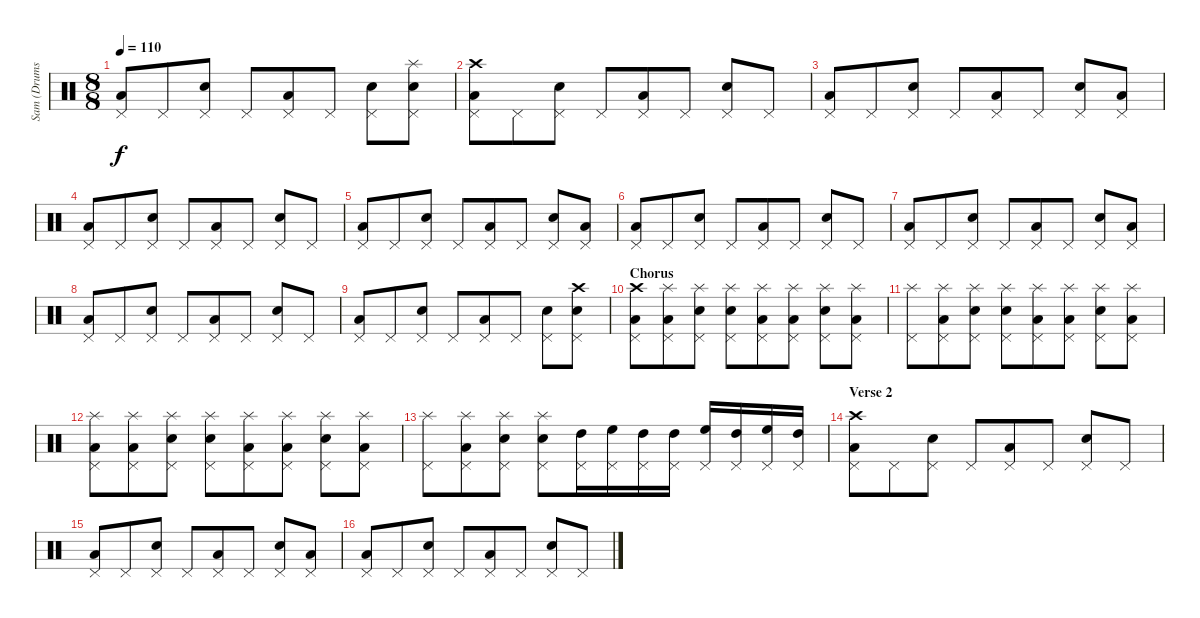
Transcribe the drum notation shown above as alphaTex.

\track ("Sam (Drums)" "Sam (Drums") {instrument percussion}
\staff {score}
\articulation defaults
\ts (8 8)
\tempo 110
\clef neutral
\ks c
("Low Tom (hit)" "Pedal Hi-Hat (hit)").8{dy f} "Pedal Hi-Hat (hit)".8 ("Snare (hit) 2" "Pedal Hi-Hat (hit)").8 "Pedal Hi-Hat (hit)".8 ("Low Tom (hit)" "Pedal Hi-Hat (hit)").8 "Pedal Hi-Hat (hit)".8 ("Snare (hit) 2" "Pedal Hi-Hat (hit)").8 ("Splash (hit)" "Snare (hit) 2" "Pedal Hi-Hat (hit)").8 |
("Crash high (hit)" "Low Tom (hit)" "Pedal Hi-Hat (hit)").8 "Pedal Hi-Hat (hit)".8 ("Snare (hit) 2" "Pedal Hi-Hat (hit)").8 "Pedal Hi-Hat (hit)".8 ("Low Tom (hit)" "Pedal Hi-Hat (hit)").8 "Pedal Hi-Hat (hit)".8 ("Snare (hit) 2" "Pedal Hi-Hat (hit)").8 "Pedal Hi-Hat (hit)".8 |
("Low Tom (hit)" "Pedal Hi-Hat (hit)").8 "Pedal Hi-Hat (hit)".8 ("Snare (hit) 2" "Pedal Hi-Hat (hit)").8 "Pedal Hi-Hat (hit)".8 ("Low Tom (hit)" "Pedal Hi-Hat (hit)").8 "Pedal Hi-Hat (hit)".8 ("Snare (hit) 2" "Pedal Hi-Hat (hit)").8 ("Low Tom (hit)" "Pedal Hi-Hat (hit)").8 |
("Low Tom (hit)" "Pedal Hi-Hat (hit)").8 "Pedal Hi-Hat (hit)".8 ("Snare (hit) 2" "Pedal Hi-Hat (hit)").8 "Pedal Hi-Hat (hit)".8 ("Low Tom (hit)" "Pedal Hi-Hat (hit)").8 "Pedal Hi-Hat (hit)".8 ("Snare (hit) 2" "Pedal Hi-Hat (hit)").8 "Pedal Hi-Hat (hit)".8 |
("Low Tom (hit)" "Pedal Hi-Hat (hit)").8 "Pedal Hi-Hat (hit)".8 ("Snare (hit) 2" "Pedal Hi-Hat (hit)").8 "Pedal Hi-Hat (hit)".8 ("Low Tom (hit)" "Pedal Hi-Hat (hit)").8 "Pedal Hi-Hat (hit)".8 ("Snare (hit) 2" "Pedal Hi-Hat (hit)").8 ("Low Tom (hit)" "Pedal Hi-Hat (hit)").8 |
("Low Tom (hit)" "Pedal Hi-Hat (hit)").8 "Pedal Hi-Hat (hit)".8 ("Snare (hit) 2" "Pedal Hi-Hat (hit)").8 "Pedal Hi-Hat (hit)".8 ("Low Tom (hit)" "Pedal Hi-Hat (hit)").8 "Pedal Hi-Hat (hit)".8 ("Snare (hit) 2" "Pedal Hi-Hat (hit)").8 "Pedal Hi-Hat (hit)".8 |
("Low Tom (hit)" "Pedal Hi-Hat (hit)").8 "Pedal Hi-Hat (hit)".8 ("Snare (hit) 2" "Pedal Hi-Hat (hit)").8 "Pedal Hi-Hat (hit)".8 ("Low Tom (hit)" "Pedal Hi-Hat (hit)").8 "Pedal Hi-Hat (hit)".8 ("Snare (hit) 2" "Pedal Hi-Hat (hit)").8 ("Low Tom (hit)" "Pedal Hi-Hat (hit)").8 |
("Low Tom (hit)" "Pedal Hi-Hat (hit)").8 "Pedal Hi-Hat (hit)".8 ("Snare (hit) 2" "Pedal Hi-Hat (hit)").8 "Pedal Hi-Hat (hit)".8 ("Low Tom (hit)" "Pedal Hi-Hat (hit)").8 "Pedal Hi-Hat (hit)".8 ("Snare (hit) 2" "Pedal Hi-Hat (hit)").8 "Pedal Hi-Hat (hit)".8 |
("Low Tom (hit)" "Pedal Hi-Hat (hit)").8 "Pedal Hi-Hat (hit)".8 ("Snare (hit) 2" "Pedal Hi-Hat (hit)").8 "Pedal Hi-Hat (hit)".8 ("Low Tom (hit)" "Pedal Hi-Hat (hit)").8 "Pedal Hi-Hat (hit)".8 ("Snare (hit) 2" "Pedal Hi-Hat (hit)").8 ("Crash high (hit)" "Snare (hit) 2" "Pedal Hi-Hat (hit)").8 |
\section ("" "Chorus")
("Crash high (hit)" "Low Tom (hit)" "Pedal Hi-Hat (hit)").8 ("Splash (hit)" "Low Tom (hit)" "Pedal Hi-Hat (hit)").8 ("Splash (hit)" "Snare (hit) 2" "Pedal Hi-Hat (hit)").8 ("Splash (hit)" "Snare (hit) 2" "Pedal Hi-Hat (hit)").8 ("Splash (hit)" "Low Tom (hit)" "Pedal Hi-Hat (hit)").8 ("Splash (hit)" "Low Tom (hit)" "Pedal Hi-Hat (hit)").8 ("Splash (hit)" "Snare (hit) 2" "Pedal Hi-Hat (hit)").8 ("Splash (hit)" "Low Tom (hit)" "Pedal Hi-Hat (hit)").8 |
("Splash (hit)" "Pedal Hi-Hat (hit)").8 ("Splash (hit)" "Low Tom (hit)" "Pedal Hi-Hat (hit)").8 ("Splash (hit)" "Snare (hit) 2" "Pedal Hi-Hat (hit)").8 ("Splash (hit)" "Snare (hit) 2" "Pedal Hi-Hat (hit)").8 ("Splash (hit)" "Low Tom (hit)" "Pedal Hi-Hat (hit)").8 ("Splash (hit)" "Low Tom (hit)" "Pedal Hi-Hat (hit)").8 ("Splash (hit)" "Snare (hit) 2" "Pedal Hi-Hat (hit)").8 ("Splash (hit)" "Low Tom (hit)" "Pedal Hi-Hat (hit)").8 |
("Splash (hit)" "Low Tom (hit)" "Pedal Hi-Hat (hit)").8 ("Splash (hit)" "Low Tom (hit)" "Pedal Hi-Hat (hit)").8 ("Splash (hit)" "Snare (hit) 2" "Pedal Hi-Hat (hit)").8 ("Splash (hit)" "Snare (hit) 2" "Pedal Hi-Hat (hit)").8 ("Splash (hit)" "Low Tom (hit)" "Pedal Hi-Hat (hit)").8 ("Splash (hit)" "Low Tom (hit)" "Pedal Hi-Hat (hit)").8 ("Splash (hit)" "Snare (hit) 2" "Pedal Hi-Hat (hit)").8 ("Splash (hit)" "Low Tom (hit)" "Pedal Hi-Hat (hit)").8 |
("Splash (hit)" "Pedal Hi-Hat (hit)").8 ("Splash (hit)" "Low Tom (hit)" "Pedal Hi-Hat (hit)").8 ("Splash (hit)" "Snare (hit) 2" "Pedal Hi-Hat (hit)").8 ("Splash (hit)" "Snare (hit) 2" "Pedal Hi-Hat (hit)").8 ("High Tom (hit)" "Pedal Hi-Hat (hit)").16 ("High Floor Tom (hit)" "Pedal Hi-Hat (hit)").16 ("High Tom (hit)" "Pedal Hi-Hat (hit)").16 ("High Tom (hit)" "Pedal Hi-Hat (hit)").16 ("High Floor Tom (hit)" "Pedal Hi-Hat (hit)").16 ("High Tom (hit)" "Pedal Hi-Hat (hit)").16 ("High Floor Tom (hit)" "Pedal Hi-Hat (hit)").16 ("High Tom (hit)" "Pedal Hi-Hat (hit)").16 |
\section ("" "Verse 2")
("Crash high (hit)" "Low Tom (hit)" "Pedal Hi-Hat (hit)").8 "Pedal Hi-Hat (hit)".8 ("Snare (hit) 2" "Pedal Hi-Hat (hit)").8 "Pedal Hi-Hat (hit)".8 ("Low Tom (hit)" "Pedal Hi-Hat (hit)").8 "Pedal Hi-Hat (hit)".8 ("Snare (hit) 2" "Pedal Hi-Hat (hit)").8 "Pedal Hi-Hat (hit)".8 |
("Low Tom (hit)" "Pedal Hi-Hat (hit)").8 "Pedal Hi-Hat (hit)".8 ("Snare (hit) 2" "Pedal Hi-Hat (hit)").8 "Pedal Hi-Hat (hit)".8 ("Low Tom (hit)" "Pedal Hi-Hat (hit)").8 "Pedal Hi-Hat (hit)".8 ("Snare (hit) 2" "Pedal Hi-Hat (hit)").8 ("Low Tom (hit)" "Pedal Hi-Hat (hit)").8 |
("Low Tom (hit)" "Pedal Hi-Hat (hit)").8 "Pedal Hi-Hat (hit)".8 ("Snare (hit) 2" "Pedal Hi-Hat (hit)").8 "Pedal Hi-Hat (hit)".8 ("Low Tom (hit)" "Pedal Hi-Hat (hit)").8 "Pedal Hi-Hat (hit)".8 ("Snare (hit) 2" "Pedal Hi-Hat (hit)").8 "Pedal Hi-Hat (hit)".8
